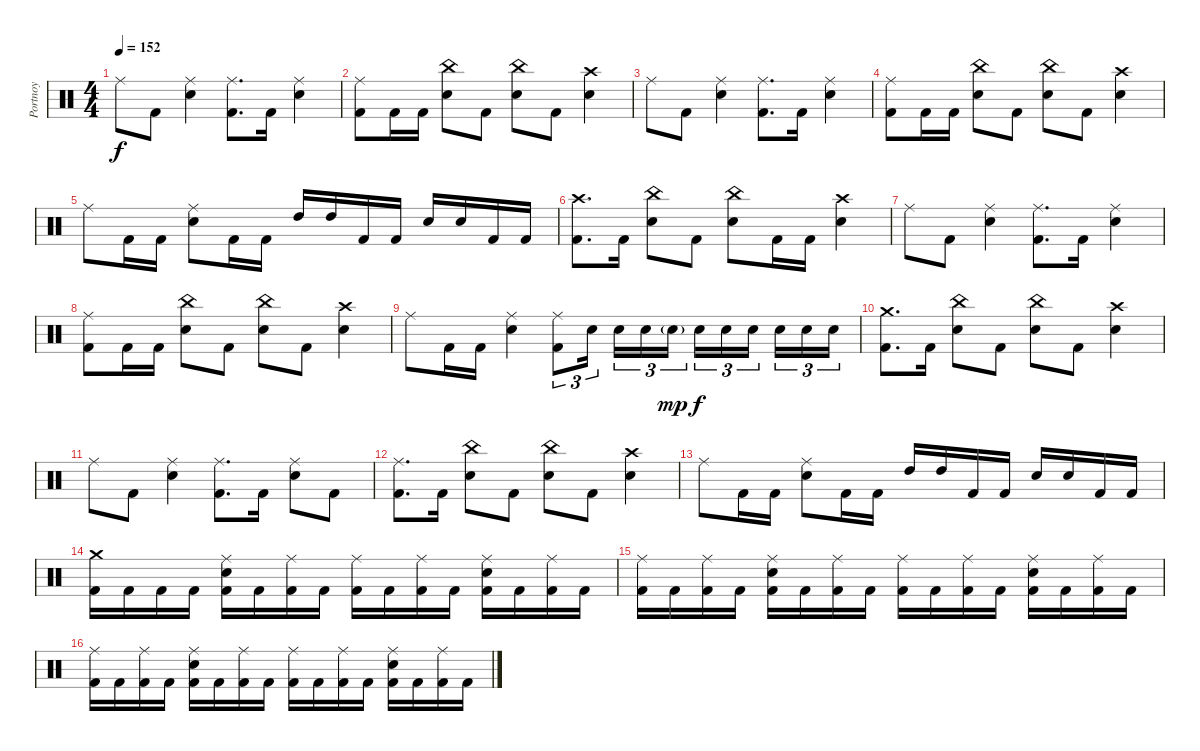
\track ("Portnoy" "Portnoy") {instrument percussion}
\staff {score}
\articulation defaults
\ts (4 4)
\tempo 152
\clef neutral
\ks c "Ride (middle)".8{dy f} "Kick (hit) 2".8
("Ride (middle)" "Electric Snare (hit)").4 ("Ride (middle)" "Kick (hit) 2").8{d} "Kick (hit) 2".16 ("Ride (middle)" "Electric Snare (hit)").4 |
("Ride (middle)" "Kick (hit) 2").8 "Kick (hit) 2".16 "Kick (hit) 2".16 ("China (hit)" "Electric Snare (hit)").8 "Kick (hit) 2".8 ("China (hit)" "Electric Snare (hit)").8 "Kick (hit) 2".8 ("Crash high (hit)" "Electric Snare (hit)").4 |
"Ride (middle)".8 "Kick (hit) 2".8 ("Ride (middle)" "Electric Snare (hit)").4 ("Ride (middle)" "Kick (hit) 2").8{d} "Kick (hit) 2".16 ("Ride (middle)" "Electric Snare (hit)").4 |
("Ride (middle)" "Kick (hit) 2").8 "Kick (hit) 2".16 "Kick (hit) 2".16 ("China (hit)" "Electric Snare (hit)").8 "Kick (hit) 2".8 ("China (hit)" "Electric Snare (hit)").8 "Kick (hit) 2".8 ("Crash high (hit)" "Electric Snare (hit)").4 |
"Ride (middle)".8 "Kick (hit) 2".16 "Kick (hit) 2".16 ("Ride (middle)" "Electric Snare (hit)").8 "Kick (hit) 2".16 "Kick (hit) 2".16 "High Tom (hit)".16 "High Tom (hit)".16 "Kick (hit) 2".16 "Kick (hit) 2".16 "Electric Snare (hit)".16 "Electric Snare (hit)".16 "Kick (hit) 2".16 "Kick (hit) 2".16 |
("Crash high (hit)" "Kick (hit) 2").8{d} "Kick (hit) 2".16 ("China (hit)" "Electric Snare (hit)").8 "Kick (hit) 2".8 ("China (hit)" "Electric Snare (hit)").8 "Kick (hit) 2".16 "Kick (hit) 2".16 ("Crash high (hit)" "Electric Snare (hit)").4 |
"Ride (middle)".8 "Kick (hit) 2".8 ("Ride (middle)" "Electric Snare (hit)").4 ("Ride (middle)" "Kick (hit) 2").8{d} "Kick (hit) 2".16 ("Ride (middle)" "Electric Snare (hit)").4 |
("Ride (middle)" "Kick (hit) 2").8 "Kick (hit) 2".16 "Kick (hit) 2".16 ("China (hit)" "Electric Snare (hit)").8 "Kick (hit) 2".8 ("China (hit)" "Electric Snare (hit)").8 "Kick (hit) 2".8 ("Crash high (hit)" "Electric Snare (hit)").4 |
"Ride (middle)".8 "Kick (hit) 2".16 "Kick (hit) 2".16 ("Ride (middle)" "Electric Snare (hit)").4 ("Ride (middle)" "Kick (hit) 2").8{tu (3 2)} "Electric Snare (hit)".16{tu (3 2) beam splitsecondary} "Electric Snare (hit)".16{tu (3 2)} "Electric Snare (hit)".16{tu (3 2)} "Electric Snare (hit)"{g}.16{tu (3 2) dy mp} "Electric Snare (hit)".16{tu (3 2) dy f} "Electric Snare (hit)".16{tu (3 2)} "Electric Snare (hit)".16{tu (3 2) beam splitsecondary} "Electric Snare (hit)".16{tu (3 2)} "Electric Snare (hit)".16{tu (3 2)} "Electric Snare (hit)".16{tu (3 2)} |
("Crash medium (hit)" "Kick (hit) 2").8{d} "Kick (hit) 2".16 ("China (hit)" "Electric Snare (hit)").8 "Kick (hit) 2".8 ("China (hit)" "Electric Snare (hit)").8 "Kick (hit) 2".8 ("Crash high (hit)" "Electric Snare (hit)").4 |
"Ride (middle)".8 "Kick (hit) 2".8 ("Ride (middle)" "Electric Snare (hit)").4 ("Ride (middle)" "Kick (hit) 2").8{d} "Kick (hit) 2".16 ("Ride (middle)" "Electric Snare (hit)").8 "Kick (hit) 2".8 |
("Ride (middle)" "Kick (hit) 2").8{d} "Kick (hit) 2".16 ("China (hit)" "Electric Snare (hit)").8 "Kick (hit) 2".8 ("China (hit)" "Electric Snare (hit)").8 "Kick (hit) 2".8 ("Crash high (hit)" "Electric Snare (hit)").4 |
"Ride (middle)".8 "Kick (hit) 2".16 "Kick (hit) 2".16 ("Ride (middle)" "Electric Snare (hit)").8 "Kick (hit) 2".16 "Kick (hit) 2".16 "High Tom (hit)".16 "High Tom (hit)".16 "Kick (hit) 2".16 "Kick (hit) 2".16 "Electric Snare (hit)".16 "Electric Snare (hit)".16 "Kick (hit) 2".16 "Kick (hit) 2".16 |
("Crash medium (hit)" "Kick (hit) 2").16 "Kick (hit) 2".16 "Kick (hit) 2".16 "Kick (hit) 2".16 ("Ride (middle)" "Electric Snare (hit)" "Kick (hit) 2").16 "Kick (hit) 2".16 ("Ride (middle)" "Kick (hit) 2").16 "Kick (hit) 2".16 ("Ride (middle)" "Kick (hit) 2").16 "Kick (hit) 2".16 ("Ride (middle)" "Kick (hit) 2").16 "Kick (hit) 2".16 ("Ride (middle)" "Electric Snare (hit)" "Kick (hit) 2").16 "Kick (hit) 2".16 ("Ride (middle)" "Kick (hit) 2").16 "Kick (hit) 2".16 |
("Ride (middle)" "Kick (hit) 2").16 "Kick (hit) 2".16 ("Ride (middle)" "Kick (hit) 2").16 "Kick (hit) 2".16 ("Ride (middle)" "Electric Snare (hit)" "Kick (hit) 2").16 "Kick (hit) 2".16 ("Ride (middle)" "Kick (hit) 2").16 "Kick (hit) 2".16 ("Ride (middle)" "Kick (hit) 2").16 "Kick (hit) 2".16 ("Ride (middle)" "Kick (hit) 2").16 "Kick (hit) 2".16 ("Ride (middle)" "Electric Snare (hit)" "Kick (hit) 2").16 "Kick (hit) 2".16 ("Ride (middle)" "Kick (hit) 2").16 "Kick (hit) 2".16 |
("Ride (middle)" "Kick (hit) 2").16 "Kick (hit) 2".16 ("Ride (middle)" "Kick (hit) 2").16 "Kick (hit) 2".16 ("Ride (middle)" "Electric Snare (hit)" "Kick (hit) 2").16 "Kick (hit) 2".16 ("Ride (middle)" "Kick (hit) 2").16 "Kick (hit) 2".16 ("Ride (middle)" "Kick (hit) 2").16 "Kick (hit) 2".16 ("Ride (middle)" "Kick (hit) 2").16 "Kick (hit) 2".16 ("Ride (middle)" "Electric Snare (hit)" "Kick (hit) 2").16 "Kick (hit) 2".16 ("Ride (middle)" "Kick (hit) 2").16 "Kick (hit) 2".16
